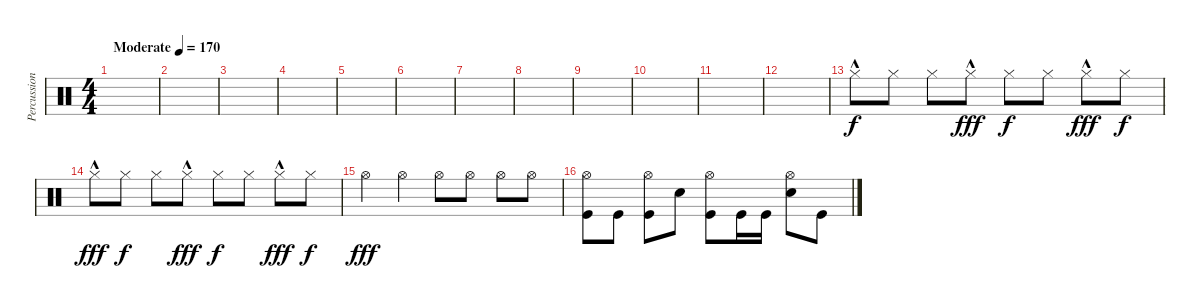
\track ("Percussion" "Percussion") {instrument percussion}
\staff {score}
\articulation defaults
\ts (4 4)
\tempo (170 "Moderate")
\clef neutral
\ks c
|
|
|
|
|
|
|
|
|
|
|
|
"Hi-Hat (closed)"{hac}.8 "Hi-Hat (closed)".8{dy f} "Hi-Hat (closed)".8 "Hi-Hat (closed)"{hac}.8{dy fff} "Hi-Hat (closed)".8{dy f} "Hi-Hat (closed)".8 "Hi-Hat (closed)"{hac}.8{dy fff} "Hi-Hat (closed)".8{dy f} |
"Hi-Hat (closed)"{hac}.8{dy fff} "Hi-Hat (closed)".8{dy f} "Hi-Hat (closed)".8 "Hi-Hat (closed)"{hac}.8{dy fff} "Hi-Hat (closed)".8{dy f} "Hi-Hat (closed)".8 "Hi-Hat (closed)"{hac}.8{dy fff} "Hi-Hat (closed)".8{dy f} |
"Hi-Hat (open)".4{dy fff} "Hi-Hat (open)".4 "Hi-Hat (open)".8 "Hi-Hat (open)".8 "Hi-Hat (open)".8 "Hi-Hat (open)".8 |
("Hi-Hat (open)" "Kick (hit)").8 "Kick (hit)".8 ("Hi-Hat (open)" "Kick (hit)").8 "Snare (hit) 2".8 ("Hi-Hat (open)" "Kick (hit)").8 "Kick (hit)".16 "Kick (hit)".16 ("Hi-Hat (open)" "Snare (hit) 2").8 "Kick (hit)".8
